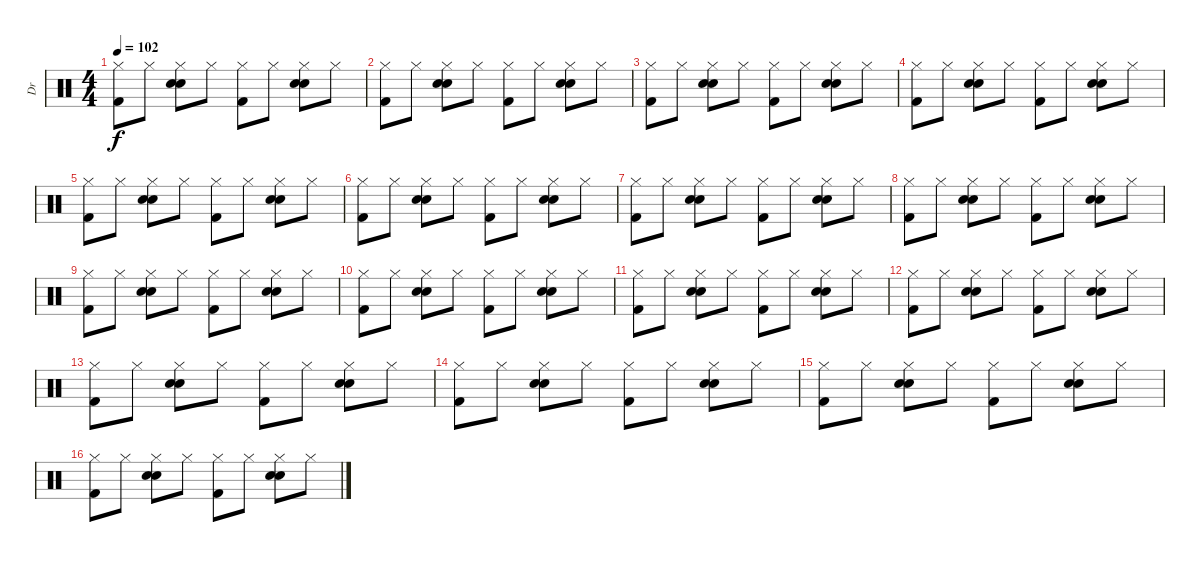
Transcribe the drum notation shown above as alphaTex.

\track ("Dr" "Dr") {instrument percussion}
\staff {score}
\articulation defaults
\ts (4 4)
\tempo 102
\clef neutral
\ks c
("Hi-Hat (closed)" "Kick (hit) 2").8{dy f} "Hi-Hat (closed)".8 ("Hi-Hat (closed)" "Electric Snare (hit)" "Hand Clap (hit)").8 "Hi-Hat (closed)".8 ("Hi-Hat (closed)" "Kick (hit) 2").8 "Hi-Hat (closed)".8 ("Hi-Hat (closed)" "Electric Snare (hit)" "Hand Clap (hit)").8 "Hi-Hat (closed)".8 |
("Hi-Hat (closed)" "Kick (hit) 2").8 "Hi-Hat (closed)".8 ("Hi-Hat (closed)" "Electric Snare (hit)" "Hand Clap (hit)").8 "Hi-Hat (closed)".8 ("Hi-Hat (closed)" "Kick (hit) 2").8 "Hi-Hat (closed)".8 ("Hi-Hat (closed)" "Electric Snare (hit)" "Hand Clap (hit)").8 "Hi-Hat (closed)".8 |
("Hi-Hat (closed)" "Kick (hit) 2").8 "Hi-Hat (closed)".8 ("Hi-Hat (closed)" "Electric Snare (hit)" "Hand Clap (hit)").8 "Hi-Hat (closed)".8 ("Hi-Hat (closed)" "Kick (hit) 2").8 "Hi-Hat (closed)".8 ("Hi-Hat (closed)" "Electric Snare (hit)" "Hand Clap (hit)").8 "Hi-Hat (closed)".8 |
("Hi-Hat (closed)" "Kick (hit) 2").8 "Hi-Hat (closed)".8 ("Hi-Hat (closed)" "Electric Snare (hit)" "Hand Clap (hit)").8 "Hi-Hat (closed)".8 ("Hi-Hat (closed)" "Kick (hit) 2").8 "Hi-Hat (closed)".8 ("Hi-Hat (closed)" "Electric Snare (hit)" "Hand Clap (hit)").8 "Hi-Hat (closed)".8 |
("Hi-Hat (closed)" "Kick (hit) 2").8 "Hi-Hat (closed)".8 ("Hi-Hat (closed)" "Electric Snare (hit)" "Hand Clap (hit)").8 "Hi-Hat (closed)".8 ("Hi-Hat (closed)" "Kick (hit) 2").8 "Hi-Hat (closed)".8 ("Hi-Hat (closed)" "Electric Snare (hit)" "Hand Clap (hit)").8 "Hi-Hat (closed)".8 |
("Hi-Hat (closed)" "Kick (hit) 2").8 "Hi-Hat (closed)".8 ("Hi-Hat (closed)" "Electric Snare (hit)" "Hand Clap (hit)").8 "Hi-Hat (closed)".8 ("Hi-Hat (closed)" "Kick (hit) 2").8 "Hi-Hat (closed)".8 ("Hi-Hat (closed)" "Electric Snare (hit)" "Hand Clap (hit)").8 "Hi-Hat (closed)".8 |
("Hi-Hat (closed)" "Kick (hit) 2").8 "Hi-Hat (closed)".8 ("Hi-Hat (closed)" "Electric Snare (hit)" "Hand Clap (hit)").8 "Hi-Hat (closed)".8 ("Hi-Hat (closed)" "Kick (hit) 2").8 "Hi-Hat (closed)".8 ("Hi-Hat (closed)" "Electric Snare (hit)" "Hand Clap (hit)").8 "Hi-Hat (closed)".8 |
("Hi-Hat (closed)" "Kick (hit) 2").8 "Hi-Hat (closed)".8 ("Hi-Hat (closed)" "Electric Snare (hit)" "Hand Clap (hit)").8 "Hi-Hat (closed)".8 ("Hi-Hat (closed)" "Kick (hit) 2").8 "Hi-Hat (closed)".8 ("Hi-Hat (closed)" "Electric Snare (hit)" "Hand Clap (hit)").8 "Hi-Hat (closed)".8 |
("Hi-Hat (closed)" "Kick (hit) 2").8 "Hi-Hat (closed)".8 ("Hi-Hat (closed)" "Electric Snare (hit)" "Hand Clap (hit)").8 "Hi-Hat (closed)".8 ("Hi-Hat (closed)" "Kick (hit) 2").8 "Hi-Hat (closed)".8 ("Hi-Hat (closed)" "Electric Snare (hit)" "Hand Clap (hit)").8 "Hi-Hat (closed)".8 |
("Hi-Hat (closed)" "Kick (hit) 2").8 "Hi-Hat (closed)".8 ("Hi-Hat (closed)" "Electric Snare (hit)" "Hand Clap (hit)").8 "Hi-Hat (closed)".8 ("Hi-Hat (closed)" "Kick (hit) 2").8 "Hi-Hat (closed)".8 ("Hi-Hat (closed)" "Electric Snare (hit)" "Hand Clap (hit)").8 "Hi-Hat (closed)".8 |
("Hi-Hat (closed)" "Kick (hit) 2").8 "Hi-Hat (closed)".8 ("Hi-Hat (closed)" "Electric Snare (hit)" "Hand Clap (hit)").8 "Hi-Hat (closed)".8 ("Hi-Hat (closed)" "Kick (hit) 2").8 "Hi-Hat (closed)".8 ("Hi-Hat (closed)" "Electric Snare (hit)" "Hand Clap (hit)").8 "Hi-Hat (closed)".8 |
("Hi-Hat (closed)" "Kick (hit) 2").8 "Hi-Hat (closed)".8 ("Hi-Hat (closed)" "Electric Snare (hit)" "Hand Clap (hit)").8 "Hi-Hat (closed)".8 ("Hi-Hat (closed)" "Kick (hit) 2").8 "Hi-Hat (closed)".8 ("Hi-Hat (closed)" "Electric Snare (hit)" "Hand Clap (hit)").8 "Hi-Hat (closed)".8 |
("Hi-Hat (closed)" "Kick (hit) 2").8 "Hi-Hat (closed)".8 ("Hi-Hat (closed)" "Electric Snare (hit)" "Hand Clap (hit)").8 "Hi-Hat (closed)".8 ("Hi-Hat (closed)" "Kick (hit) 2").8 "Hi-Hat (closed)".8 ("Hi-Hat (closed)" "Electric Snare (hit)" "Hand Clap (hit)").8 "Hi-Hat (closed)".8 |
("Hi-Hat (closed)" "Kick (hit) 2").8 "Hi-Hat (closed)".8 ("Hi-Hat (closed)" "Electric Snare (hit)" "Hand Clap (hit)").8 "Hi-Hat (closed)".8 ("Hi-Hat (closed)" "Kick (hit) 2").8 "Hi-Hat (closed)".8 ("Hi-Hat (closed)" "Electric Snare (hit)" "Hand Clap (hit)").8 "Hi-Hat (closed)".8 |
("Hi-Hat (closed)" "Kick (hit) 2").8 "Hi-Hat (closed)".8 ("Hi-Hat (closed)" "Electric Snare (hit)" "Hand Clap (hit)").8 "Hi-Hat (closed)".8 ("Hi-Hat (closed)" "Kick (hit) 2").8 "Hi-Hat (closed)".8 ("Hi-Hat (closed)" "Electric Snare (hit)" "Hand Clap (hit)").8 "Hi-Hat (closed)".8 |
("Hi-Hat (closed)" "Kick (hit) 2").8 "Hi-Hat (closed)".8 ("Hi-Hat (closed)" "Electric Snare (hit)" "Hand Clap (hit)").8 "Hi-Hat (closed)".8 ("Hi-Hat (closed)" "Kick (hit) 2").8 "Hi-Hat (closed)".8 ("Hi-Hat (closed)" "Electric Snare (hit)" "Hand Clap (hit)").8 "Hi-Hat (closed)".8
